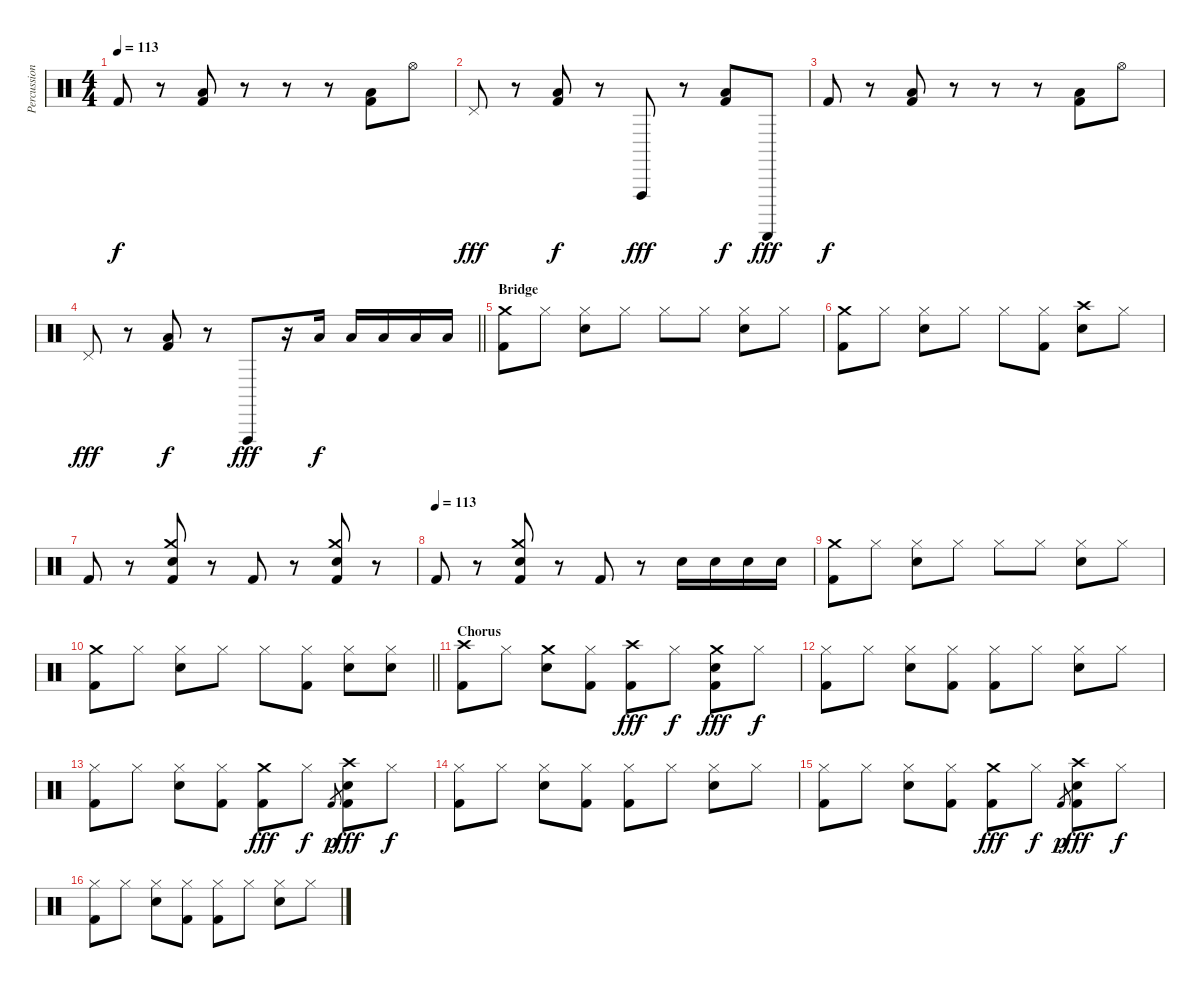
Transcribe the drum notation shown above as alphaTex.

\track ("Percussion" "Percussion") {instrument percussion}
\staff {score}
\articulation defaults
\ts (4 4)
\tempo 113
\clef neutral
\ks c "Kick (hit) 2".8{dy f}
r.8 ("Low Floor Tom (hit)" "Kick (hit) 2").8 r.8 r.8 r.8 ("Low Floor Tom (hit)" "Kick (hit) 2").8 "Hi-Hat (open)".8 |
"Pedal Hi-Hat (hit)".8{dy fff} r.8 ("Low Floor Tom (hit)" "Kick (hit) 2").8{dy f} r.8 "Vibraslap (hit)".8{dy fff} r.8 ("Low Floor Tom (hit)" "Kick (hit) 2").8{dy f} "Guiro (scrap-return)".8{dy fff} |
"Kick (hit) 2".8{dy f} r.8 ("Low Floor Tom (hit)" "Kick (hit) 2").8 r.8 r.8 r.8 ("Low Floor Tom (hit)" "Kick (hit) 2").8 "Hi-Hat (open)".8 |
\barLineRight lightlight "Pedal Hi-Hat (hit)".8{dy fff}
r.8 ("Low Floor Tom (hit)" "Kick (hit) 2").8{dy f} r.8 "Vibraslap (hit)".8{dy fff} r.16 "Low Floor Tom (hit)".16{dy f} "Low Floor Tom (hit)".16 "Low Floor Tom (hit)".16 "Low Floor Tom (hit)".16 "Low Floor Tom (hit)".16 |
\section ("" "Bridge")
("Crash medium (hit)" "Kick (hit) 2").8 "Hi-Hat (closed)".8 ("Hi-Hat (closed)" "Snare (hit) 2").8 "Hi-Hat (closed)".8 "Hi-Hat (closed)".8 "Hi-Hat (closed)".8 ("Hi-Hat (closed)" "Snare (hit) 2").8 "Hi-Hat (closed)".8 |
("Crash medium (hit)" "Kick (hit) 2").8 "Hi-Hat (closed)".8 ("Hi-Hat (closed)" "Snare (hit) 2").8 "Hi-Hat (closed)".8 "Hi-Hat (closed)".8 ("Hi-Hat (closed)" "Kick (hit) 2").8 ("Crash high (hit)" "Snare (hit) 2").8 "Hi-Hat (closed)".8 |
"Kick (hit) 2".8 r.8 ("Crash medium (hit)" "Snare (hit) 2" "Kick (hit) 2").8 r.8 "Kick (hit) 2".8 r.8 ("Crash medium (hit)" "Snare (hit) 2" "Kick (hit) 2").8 r.8 |
\tempo (113)
"Kick (hit) 2".8 r.8 ("Crash medium (hit)" "Snare (hit) 2" "Kick (hit) 2").8 r.8 "Kick (hit) 2".8 r.8 "Snare (hit) 2".16 "Snare (hit) 2".16 "Snare (hit) 2".16 "Snare (hit) 2".16 |
("Crash medium (hit)" "Kick (hit) 2").8 "Hi-Hat (closed)".8 ("Hi-Hat (closed)" "Snare (hit) 2").8 "Hi-Hat (closed)".8 "Hi-Hat (closed)".8 "Hi-Hat (closed)".8 ("Hi-Hat (closed)" "Snare (hit) 2").8 "Hi-Hat (closed)".8 |
\barLineRight lightlight
("Crash medium (hit)" "Kick (hit) 2").8 "Hi-Hat (closed)".8 ("Hi-Hat (closed)" "Snare (hit) 2").8 "Hi-Hat (closed)".8 "Hi-Hat (closed)".8 ("Hi-Hat (closed)" "Kick (hit) 2").8 ("Hi-Hat (closed)" "Snare (hit) 2").8 ("Hi-Hat (closed)" "Snare (hit) 2").8 |
\section ("" "Chorus")
("Crash high (hit)" "Kick (hit) 2").8 "Hi-Hat (closed)".8 ("Crash medium (hit)" "Snare (hit) 2").8 ("Hi-Hat (closed)" "Kick (hit) 2").8 ("Crash high (hit)" "Kick (hit) 2").8{dy fff} "Hi-Hat (closed)".8{dy f} ("Crash medium (hit)" "Snare (hit) 2" "Kick (hit) 2").8{dy fff} "Hi-Hat (closed)".8{dy f} |
("Hi-Hat (closed)" "Kick (hit) 2").8 "Hi-Hat (closed)".8 ("Hi-Hat (closed)" "Snare (hit) 2").8 ("Hi-Hat (closed)" "Kick (hit) 2").8 ("Hi-Hat (closed)" "Kick (hit) 2").8 "Hi-Hat (closed)".8 ("Hi-Hat (closed)" "Snare (hit) 2").8 "Hi-Hat (closed)".8 |
("Hi-Hat (closed)" "Kick (hit) 2").8 "Hi-Hat (closed)".8 ("Hi-Hat (closed)" "Snare (hit) 2").8 ("Hi-Hat (closed)" "Kick (hit) 2").8 ("Crash medium (hit)" "Kick (hit) 2").8{dy fff} "Hi-Hat (closed)".8{dy f} "Kick (hit) 2".8{gr dy p} ("Crash high (hit)" "Snare (hit) 2" "Kick (hit) 2").8{dy fff} "Hi-Hat (closed)".8{dy f} |
("Hi-Hat (closed)" "Kick (hit) 2").8 "Hi-Hat (closed)".8 ("Hi-Hat (closed)" "Snare (hit) 2").8 ("Hi-Hat (closed)" "Kick (hit) 2").8 ("Hi-Hat (closed)" "Kick (hit) 2").8 "Hi-Hat (closed)".8 ("Hi-Hat (closed)" "Snare (hit) 2").8 "Hi-Hat (closed)".8 |
("Hi-Hat (closed)" "Kick (hit) 2").8 "Hi-Hat (closed)".8 ("Hi-Hat (closed)" "Snare (hit) 2").8 ("Hi-Hat (closed)" "Kick (hit) 2").8 ("Crash medium (hit)" "Kick (hit) 2").8{dy fff} "Hi-Hat (closed)".8{dy f} "Kick (hit) 2".8{gr dy p} ("Crash high (hit)" "Snare (hit) 2" "Kick (hit) 2").8{dy fff} "Hi-Hat (closed)".8{dy f} |
("Hi-Hat (closed)" "Kick (hit) 2").8 "Hi-Hat (closed)".8 ("Hi-Hat (closed)" "Snare (hit) 2").8 ("Hi-Hat (closed)" "Kick (hit) 2").8 ("Hi-Hat (closed)" "Kick (hit) 2").8 "Hi-Hat (closed)".8 ("Hi-Hat (closed)" "Snare (hit) 2").8 "Hi-Hat (closed)".8
